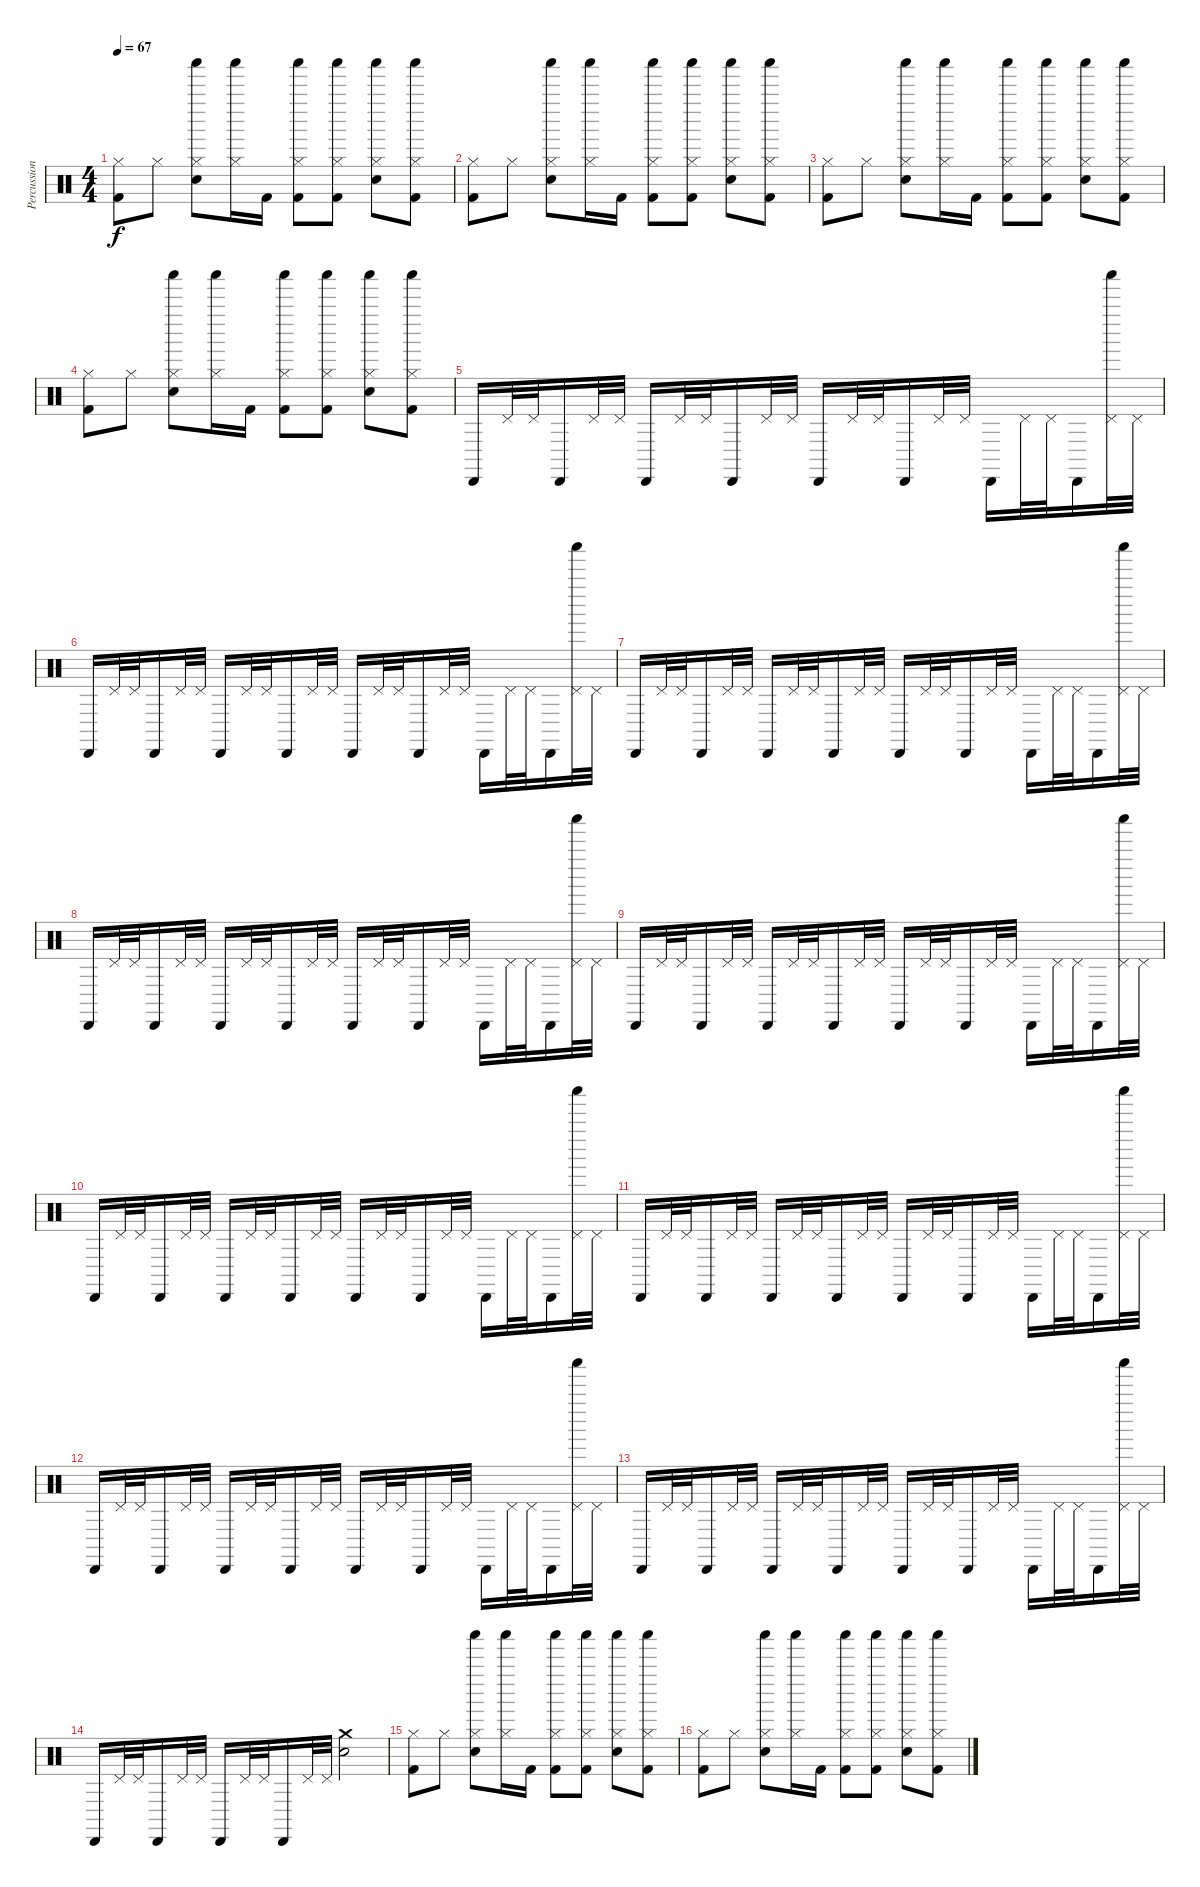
\track ("Percussion" "Percussion") {instrument percussion}
\staff {score}
\articulation defaults
\ts (4 4)
\tempo 67
\clef neutral
\ks c
("Kick (hit) 2" "Hi-Hat (closed)").8{dy f} "Hi-Hat (closed)".8 ("Snare (hit) 2" "Shaker (hit)" "Hi-Hat (closed)").8 ("Shaker (hit)" "Hi-Hat (closed)").16 "Kick (hit) 2".16 ("Kick (hit) 2" "Shaker (hit)" "Hi-Hat (closed)").8 ("Kick (hit) 2" "Shaker (hit)" "Hi-Hat (closed)").8 ("Snare (hit) 2" "Shaker (hit)" "Hi-Hat (closed)").8 ("Kick (hit) 2" "Shaker (hit)" "Hi-Hat (closed)").8 |
("Kick (hit) 2" "Hi-Hat (closed)").8 "Hi-Hat (closed)".8 ("Snare (hit) 2" "Shaker (hit)" "Hi-Hat (closed)").8 ("Shaker (hit)" "Hi-Hat (closed)").16 "Kick (hit) 2".16 ("Kick (hit) 2" "Shaker (hit)" "Hi-Hat (closed)").8 ("Kick (hit) 2" "Shaker (hit)" "Hi-Hat (closed)").8 ("Snare (hit) 2" "Shaker (hit)" "Hi-Hat (closed)").8 ("Kick (hit) 2" "Shaker (hit)" "Hi-Hat (closed)").8 |
("Kick (hit) 2" "Hi-Hat (closed)").8 "Hi-Hat (closed)".8 ("Snare (hit) 2" "Shaker (hit)" "Hi-Hat (closed)").8 ("Shaker (hit)" "Hi-Hat (closed)").16 "Kick (hit) 2".16 ("Kick (hit) 2" "Shaker (hit)" "Hi-Hat (closed)").8 ("Kick (hit) 2" "Shaker (hit)" "Hi-Hat (closed)").8 ("Snare (hit) 2" "Shaker (hit)" "Hi-Hat (closed)").8 ("Kick (hit) 2" "Shaker (hit)" "Hi-Hat (closed)").8 |
("Kick (hit) 2" "Hi-Hat (closed)").8 "Hi-Hat (closed)".8 ("Snare (hit) 2" "Shaker (hit)" "Hi-Hat (closed)").8 ("Shaker (hit)" "Hi-Hat (closed)").16 "Kick (hit) 2".16 ("Kick (hit) 2" "Shaker (hit)" "Hi-Hat (closed)").8 ("Kick (hit) 2" "Shaker (hit)" "Hi-Hat (closed)").8 ("Snare (hit) 2" "Shaker (hit)" "Hi-Hat (closed)").8 ("Kick (hit) 2" "Shaker (hit)" "Hi-Hat (closed)").8 |
"Cabasa (hit)".16 "Pedal Hi-Hat (hit)".32 "Pedal Hi-Hat (hit)".32 "Cabasa (hit)".16 "Pedal Hi-Hat (hit)".32 "Pedal Hi-Hat (hit)".32 "Cabasa (hit)".16 "Pedal Hi-Hat (hit)".32 "Pedal Hi-Hat (hit)".32 "Cabasa (hit)".16 "Pedal Hi-Hat (hit)".32 "Pedal Hi-Hat (hit)".32 "Cabasa (hit)".16 "Pedal Hi-Hat (hit)".32 "Pedal Hi-Hat (hit)".32 "Cabasa (hit)".16 "Pedal Hi-Hat (hit)".32 "Pedal Hi-Hat (hit)".32 "Cabasa (hit)".16 "Pedal Hi-Hat (hit)".32 "Pedal Hi-Hat (hit)".32 "Cabasa (hit)".16 ("Shaker (hit)" "Pedal Hi-Hat (hit)").32 "Pedal Hi-Hat (hit)".32 |
"Cabasa (hit)".16 "Pedal Hi-Hat (hit)".32 "Pedal Hi-Hat (hit)".32 "Cabasa (hit)".16 "Pedal Hi-Hat (hit)".32 "Pedal Hi-Hat (hit)".32 "Cabasa (hit)".16 "Pedal Hi-Hat (hit)".32 "Pedal Hi-Hat (hit)".32 "Cabasa (hit)".16 "Pedal Hi-Hat (hit)".32 "Pedal Hi-Hat (hit)".32 "Cabasa (hit)".16 "Pedal Hi-Hat (hit)".32 "Pedal Hi-Hat (hit)".32 "Cabasa (hit)".16 "Pedal Hi-Hat (hit)".32 "Pedal Hi-Hat (hit)".32 "Cabasa (hit)".16 "Pedal Hi-Hat (hit)".32 "Pedal Hi-Hat (hit)".32 "Cabasa (hit)".16 ("Shaker (hit)" "Pedal Hi-Hat (hit)").32 "Pedal Hi-Hat (hit)".32 |
"Cabasa (hit)".16 "Pedal Hi-Hat (hit)".32 "Pedal Hi-Hat (hit)".32 "Cabasa (hit)".16 "Pedal Hi-Hat (hit)".32 "Pedal Hi-Hat (hit)".32 "Cabasa (hit)".16 "Pedal Hi-Hat (hit)".32 "Pedal Hi-Hat (hit)".32 "Cabasa (hit)".16 "Pedal Hi-Hat (hit)".32 "Pedal Hi-Hat (hit)".32 "Cabasa (hit)".16 "Pedal Hi-Hat (hit)".32 "Pedal Hi-Hat (hit)".32 "Cabasa (hit)".16 "Pedal Hi-Hat (hit)".32 "Pedal Hi-Hat (hit)".32 "Cabasa (hit)".16 "Pedal Hi-Hat (hit)".32 "Pedal Hi-Hat (hit)".32 "Cabasa (hit)".16 ("Shaker (hit)" "Pedal Hi-Hat (hit)").32 "Pedal Hi-Hat (hit)".32 |
"Cabasa (hit)".16 "Pedal Hi-Hat (hit)".32 "Pedal Hi-Hat (hit)".32 "Cabasa (hit)".16 "Pedal Hi-Hat (hit)".32 "Pedal Hi-Hat (hit)".32 "Cabasa (hit)".16 "Pedal Hi-Hat (hit)".32 "Pedal Hi-Hat (hit)".32 "Cabasa (hit)".16 "Pedal Hi-Hat (hit)".32 "Pedal Hi-Hat (hit)".32 "Cabasa (hit)".16 "Pedal Hi-Hat (hit)".32 "Pedal Hi-Hat (hit)".32 "Cabasa (hit)".16 "Pedal Hi-Hat (hit)".32 "Pedal Hi-Hat (hit)".32 "Cabasa (hit)".16 "Pedal Hi-Hat (hit)".32 "Pedal Hi-Hat (hit)".32 "Cabasa (hit)".16 ("Shaker (hit)" "Pedal Hi-Hat (hit)").32 "Pedal Hi-Hat (hit)".32 |
"Cabasa (hit)".16 "Pedal Hi-Hat (hit)".32 "Pedal Hi-Hat (hit)".32 "Cabasa (hit)".16 "Pedal Hi-Hat (hit)".32 "Pedal Hi-Hat (hit)".32 "Cabasa (hit)".16 "Pedal Hi-Hat (hit)".32 "Pedal Hi-Hat (hit)".32 "Cabasa (hit)".16 "Pedal Hi-Hat (hit)".32 "Pedal Hi-Hat (hit)".32 "Cabasa (hit)".16 "Pedal Hi-Hat (hit)".32 "Pedal Hi-Hat (hit)".32 "Cabasa (hit)".16 "Pedal Hi-Hat (hit)".32 "Pedal Hi-Hat (hit)".32 "Cabasa (hit)".16 "Pedal Hi-Hat (hit)".32 "Pedal Hi-Hat (hit)".32 "Cabasa (hit)".16 ("Shaker (hit)" "Pedal Hi-Hat (hit)").32 "Pedal Hi-Hat (hit)".32 |
"Cabasa (hit)".16 "Pedal Hi-Hat (hit)".32 "Pedal Hi-Hat (hit)".32 "Cabasa (hit)".16 "Pedal Hi-Hat (hit)".32 "Pedal Hi-Hat (hit)".32 "Cabasa (hit)".16 "Pedal Hi-Hat (hit)".32 "Pedal Hi-Hat (hit)".32 "Cabasa (hit)".16 "Pedal Hi-Hat (hit)".32 "Pedal Hi-Hat (hit)".32 "Cabasa (hit)".16 "Pedal Hi-Hat (hit)".32 "Pedal Hi-Hat (hit)".32 "Cabasa (hit)".16 "Pedal Hi-Hat (hit)".32 "Pedal Hi-Hat (hit)".32 "Cabasa (hit)".16 "Pedal Hi-Hat (hit)".32 "Pedal Hi-Hat (hit)".32 "Cabasa (hit)".16 ("Shaker (hit)" "Pedal Hi-Hat (hit)").32 "Pedal Hi-Hat (hit)".32 |
"Cabasa (hit)".16 "Pedal Hi-Hat (hit)".32 "Pedal Hi-Hat (hit)".32 "Cabasa (hit)".16 "Pedal Hi-Hat (hit)".32 "Pedal Hi-Hat (hit)".32 "Cabasa (hit)".16 "Pedal Hi-Hat (hit)".32 "Pedal Hi-Hat (hit)".32 "Cabasa (hit)".16 "Pedal Hi-Hat (hit)".32 "Pedal Hi-Hat (hit)".32 "Cabasa (hit)".16 "Pedal Hi-Hat (hit)".32 "Pedal Hi-Hat (hit)".32 "Cabasa (hit)".16 "Pedal Hi-Hat (hit)".32 "Pedal Hi-Hat (hit)".32 "Cabasa (hit)".16 "Pedal Hi-Hat (hit)".32 "Pedal Hi-Hat (hit)".32 "Cabasa (hit)".16 ("Shaker (hit)" "Pedal Hi-Hat (hit)").32 "Pedal Hi-Hat (hit)".32 |
"Cabasa (hit)".16 "Pedal Hi-Hat (hit)".32 "Pedal Hi-Hat (hit)".32 "Cabasa (hit)".16 "Pedal Hi-Hat (hit)".32 "Pedal Hi-Hat (hit)".32 "Cabasa (hit)".16 "Pedal Hi-Hat (hit)".32 "Pedal Hi-Hat (hit)".32 "Cabasa (hit)".16 "Pedal Hi-Hat (hit)".32 "Pedal Hi-Hat (hit)".32 "Cabasa (hit)".16 "Pedal Hi-Hat (hit)".32 "Pedal Hi-Hat (hit)".32 "Cabasa (hit)".16 "Pedal Hi-Hat (hit)".32 "Pedal Hi-Hat (hit)".32 "Cabasa (hit)".16 "Pedal Hi-Hat (hit)".32 "Pedal Hi-Hat (hit)".32 "Cabasa (hit)".16 ("Shaker (hit)" "Pedal Hi-Hat (hit)").32 "Pedal Hi-Hat (hit)".32 |
"Cabasa (hit)".16 "Pedal Hi-Hat (hit)".32 "Pedal Hi-Hat (hit)".32 "Cabasa (hit)".16 "Pedal Hi-Hat (hit)".32 "Pedal Hi-Hat (hit)".32 "Cabasa (hit)".16 "Pedal Hi-Hat (hit)".32 "Pedal Hi-Hat (hit)".32 "Cabasa (hit)".16 "Pedal Hi-Hat (hit)".32 "Pedal Hi-Hat (hit)".32 "Cabasa (hit)".16 "Pedal Hi-Hat (hit)".32 "Pedal Hi-Hat (hit)".32 "Cabasa (hit)".16 "Pedal Hi-Hat (hit)".32 "Pedal Hi-Hat (hit)".32 "Cabasa (hit)".16 "Pedal Hi-Hat (hit)".32 "Pedal Hi-Hat (hit)".32 "Cabasa (hit)".16 ("Shaker (hit)" "Pedal Hi-Hat (hit)").32 "Pedal Hi-Hat (hit)".32 |
"Cabasa (hit)".16 "Pedal Hi-Hat (hit)".32 "Pedal Hi-Hat (hit)".32 "Cabasa (hit)".16 "Pedal Hi-Hat (hit)".32 "Pedal Hi-Hat (hit)".32 "Cabasa (hit)".16 "Pedal Hi-Hat (hit)".32 "Pedal Hi-Hat (hit)".32 "Cabasa (hit)".16 "Pedal Hi-Hat (hit)".32 "Pedal Hi-Hat (hit)".32 ("Crash medium (hit)" "Snare (hit) 2").2 |
("Kick (hit) 2" "Hi-Hat (closed)").8 "Hi-Hat (closed)".8 ("Snare (hit) 2" "Shaker (hit)" "Hi-Hat (closed)").8 ("Shaker (hit)" "Hi-Hat (closed)").16 "Kick (hit) 2".16 ("Kick (hit) 2" "Shaker (hit)" "Hi-Hat (closed)").8 ("Kick (hit) 2" "Shaker (hit)" "Hi-Hat (closed)").8 ("Snare (hit) 2" "Shaker (hit)" "Hi-Hat (closed)").8 ("Kick (hit) 2" "Shaker (hit)" "Hi-Hat (closed)").8 |
("Kick (hit) 2" "Hi-Hat (closed)").8 "Hi-Hat (closed)".8 ("Snare (hit) 2" "Shaker (hit)" "Hi-Hat (closed)").8 ("Shaker (hit)" "Hi-Hat (closed)").16 "Kick (hit) 2".16 ("Kick (hit) 2" "Shaker (hit)" "Hi-Hat (closed)").8 ("Kick (hit) 2" "Shaker (hit)" "Hi-Hat (closed)").8 ("Snare (hit) 2" "Shaker (hit)" "Hi-Hat (closed)").8 ("Kick (hit) 2" "Shaker (hit)" "Hi-Hat (closed)").8
